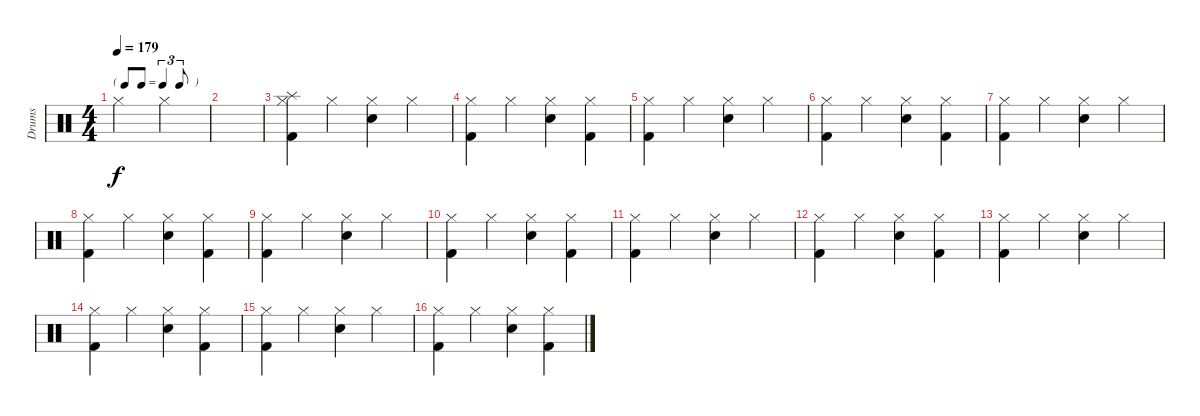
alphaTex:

\track ("Drums" "Drums") {instrument percussion}
\staff {score}
\articulation defaults
\ts (4 4)
\tf triplet8th
\tempo 179
\clef neutral
\ks c "Hi-Hat (closed)".2{dy f} "Hi-Hat (closed)".2
|
|
("Hi-Hat (closed)" "Splash (hit)" "Kick (hit) 2").4 "Hi-Hat (closed)".4 ("Hi-Hat (closed)" "Snare (hit) 2").4 "Hi-Hat (closed)".4 |
("Hi-Hat (closed)" "Kick (hit) 2").4 "Hi-Hat (closed)".4 ("Hi-Hat (closed)" "Snare (hit) 2").4 ("Hi-Hat (closed)" "Kick (hit) 2").4 |
("Hi-Hat (closed)" "Kick (hit) 2").4 "Hi-Hat (closed)".4 ("Hi-Hat (closed)" "Snare (hit) 2").4 "Hi-Hat (closed)".4 |
("Hi-Hat (closed)" "Kick (hit) 2").4 "Hi-Hat (closed)".4 ("Hi-Hat (closed)" "Snare (hit) 2").4 ("Hi-Hat (closed)" "Kick (hit) 2").4 |
("Hi-Hat (closed)" "Kick (hit) 2").4 "Hi-Hat (closed)".4 ("Hi-Hat (closed)" "Snare (hit) 2").4 "Hi-Hat (closed)".4 |
("Hi-Hat (closed)" "Kick (hit) 2").4 "Hi-Hat (closed)".4 ("Hi-Hat (closed)" "Snare (hit) 2").4 ("Hi-Hat (closed)" "Kick (hit) 2").4 |
("Hi-Hat (closed)" "Kick (hit) 2").4 "Hi-Hat (closed)".4 ("Hi-Hat (closed)" "Snare (hit) 2").4 "Hi-Hat (closed)".4 |
("Hi-Hat (closed)" "Kick (hit) 2").4 "Hi-Hat (closed)".4 ("Hi-Hat (closed)" "Snare (hit) 2").4 ("Hi-Hat (closed)" "Kick (hit) 2").4 |
("Hi-Hat (closed)" "Kick (hit) 2").4 "Hi-Hat (closed)".4 ("Hi-Hat (closed)" "Snare (hit) 2").4 "Hi-Hat (closed)".4 |
("Hi-Hat (closed)" "Kick (hit) 2").4 "Hi-Hat (closed)".4 ("Hi-Hat (closed)" "Snare (hit) 2").4 ("Hi-Hat (closed)" "Kick (hit) 2").4 |
("Hi-Hat (closed)" "Kick (hit) 2").4 "Hi-Hat (closed)".4 ("Hi-Hat (closed)" "Snare (hit) 2").4 "Hi-Hat (closed)".4 |
("Hi-Hat (closed)" "Kick (hit) 2").4 "Hi-Hat (closed)".4 ("Hi-Hat (closed)" "Snare (hit) 2").4 ("Hi-Hat (closed)" "Kick (hit) 2").4 |
("Hi-Hat (closed)" "Kick (hit) 2").4 "Hi-Hat (closed)".4 ("Hi-Hat (closed)" "Snare (hit) 2").4 "Hi-Hat (closed)".4 |
("Hi-Hat (closed)" "Kick (hit) 2").4 "Hi-Hat (closed)".4 ("Hi-Hat (closed)" "Snare (hit) 2").4 ("Hi-Hat (closed)" "Kick (hit) 2").4
